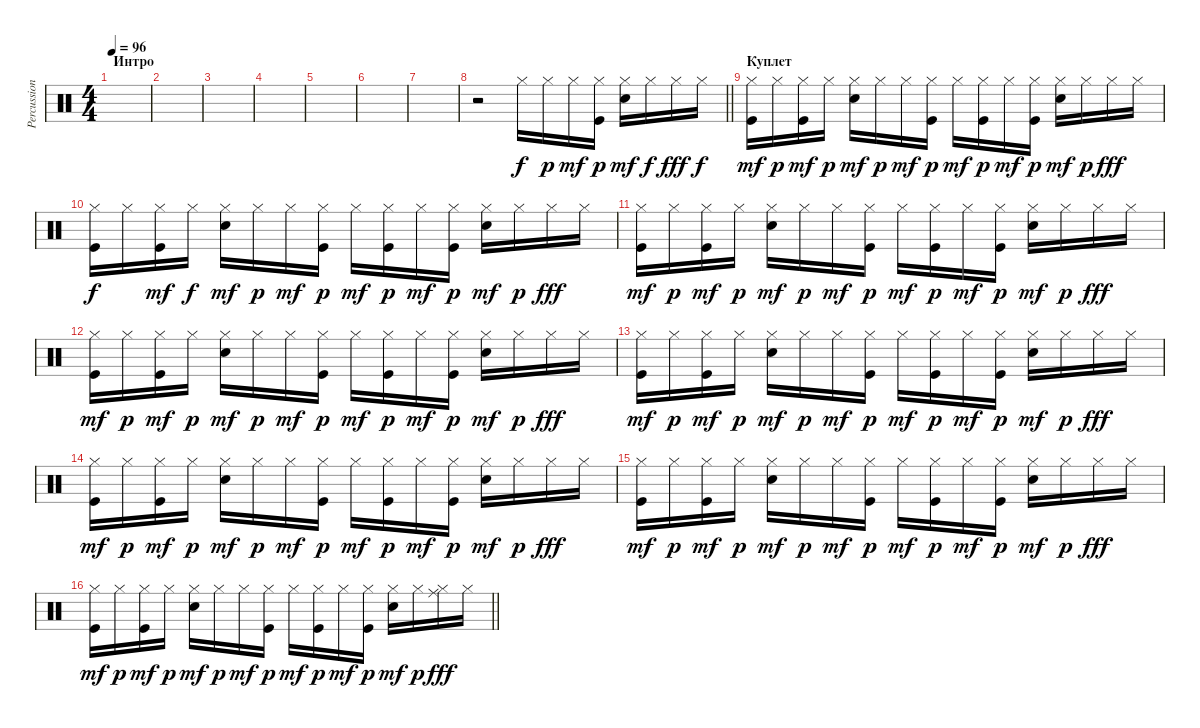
\track ("Percussion" "Percussion") {instrument percussion}
\staff {score}
\articulation defaults
\ts (4 4)
\section ("" "Интро")
\tempo 96
\clef neutral
\ks c
|
|
|
|
|
|
|
\barLineRight lightlight
r.2 "Hi-Hat (closed)".16 "Hi-Hat (closed)".16{dy p} "Hi-Hat (closed)".16{dy mf} ("Hi-Hat (closed)" "Kick (hit)").16{dy p} ("Hi-Hat (closed)" "Snare (hit) 2").16{dy mf} "Hi-Hat (closed)".16{dy f} "Hi-Hat (closed)".16{dy fff} "Hi-Hat (closed)".16{dy f} |
\section ("" "Куплет")
("Hi-Hat (closed)" "Kick (hit)").16{dy mf} "Hi-Hat (closed)".16{dy p} ("Hi-Hat (closed)" "Kick (hit)").16{dy mf} "Hi-Hat (closed)".16{dy p} ("Hi-Hat (closed)" "Snare (hit) 2").16{dy mf} "Hi-Hat (closed)".16{dy p} "Hi-Hat (closed)".16{dy mf} ("Hi-Hat (closed)" "Kick (hit)").16{dy p} "Hi-Hat (closed)".16{dy mf} ("Hi-Hat (closed)" "Kick (hit)").16{dy p} "Hi-Hat (closed)".16{dy mf} ("Hi-Hat (closed)" "Kick (hit)").16{dy p} ("Hi-Hat (closed)" "Snare (hit) 2").16{dy mf} "Hi-Hat (closed)".16{dy p} "Hi-Hat (closed)".16{dy fff} "Hi-Hat (closed)".16 |
("Hi-Hat (closed)" "Kick (hit)").16{dy f} "Hi-Hat (closed)".16 ("Hi-Hat (closed)" "Kick (hit)").16{dy mf} "Hi-Hat (closed)".16{dy f} ("Hi-Hat (closed)" "Snare (hit) 2").16{dy mf} "Hi-Hat (closed)".16{dy p} "Hi-Hat (closed)".16{dy mf} ("Hi-Hat (closed)" "Kick (hit)").16{dy p} "Hi-Hat (closed)".16{dy mf} ("Hi-Hat (closed)" "Kick (hit)").16{dy p} "Hi-Hat (closed)".16{dy mf} ("Hi-Hat (closed)" "Kick (hit)").16{dy p} ("Hi-Hat (closed)" "Snare (hit) 2").16{dy mf} "Hi-Hat (closed)".16{dy p} "Hi-Hat (closed)".16{dy fff} "Hi-Hat (closed)".16 |
("Hi-Hat (closed)" "Kick (hit)").16{dy mf} "Hi-Hat (closed)".16{dy p} ("Hi-Hat (closed)" "Kick (hit)").16{dy mf} "Hi-Hat (closed)".16{dy p} ("Hi-Hat (closed)" "Snare (hit) 2").16{dy mf} "Hi-Hat (closed)".16{dy p} "Hi-Hat (closed)".16{dy mf} ("Hi-Hat (closed)" "Kick (hit)").16{dy p} "Hi-Hat (closed)".16{dy mf} ("Hi-Hat (closed)" "Kick (hit)").16{dy p} "Hi-Hat (closed)".16{dy mf} ("Hi-Hat (closed)" "Kick (hit)").16{dy p} ("Hi-Hat (closed)" "Snare (hit) 2").16{dy mf} "Hi-Hat (closed)".16{dy p} "Hi-Hat (closed)".16{dy fff} "Hi-Hat (closed)".16 |
("Hi-Hat (closed)" "Kick (hit)").16{dy mf} "Hi-Hat (closed)".16{dy p} ("Hi-Hat (closed)" "Kick (hit)").16{dy mf} "Hi-Hat (closed)".16{dy p} ("Hi-Hat (closed)" "Snare (hit) 2").16{dy mf} "Hi-Hat (closed)".16{dy p} "Hi-Hat (closed)".16{dy mf} ("Hi-Hat (closed)" "Kick (hit)").16{dy p} "Hi-Hat (closed)".16{dy mf} ("Hi-Hat (closed)" "Kick (hit)").16{dy p} "Hi-Hat (closed)".16{dy mf} ("Hi-Hat (closed)" "Kick (hit)").16{dy p} ("Hi-Hat (closed)" "Snare (hit) 2").16{dy mf} "Hi-Hat (closed)".16{dy p} "Hi-Hat (closed)".16{dy fff} "Hi-Hat (closed)".16 |
("Hi-Hat (closed)" "Kick (hit)").16{dy mf} "Hi-Hat (closed)".16{dy p} ("Hi-Hat (closed)" "Kick (hit)").16{dy mf} "Hi-Hat (closed)".16{dy p} ("Hi-Hat (closed)" "Snare (hit) 2").16{dy mf} "Hi-Hat (closed)".16{dy p} "Hi-Hat (closed)".16{dy mf} ("Hi-Hat (closed)" "Kick (hit)").16{dy p} "Hi-Hat (closed)".16{dy mf} ("Hi-Hat (closed)" "Kick (hit)").16{dy p} "Hi-Hat (closed)".16{dy mf} ("Hi-Hat (closed)" "Kick (hit)").16{dy p} ("Hi-Hat (closed)" "Snare (hit) 2").16{dy mf} "Hi-Hat (closed)".16{dy p} "Hi-Hat (closed)".16{dy fff} "Hi-Hat (closed)".16 |
("Hi-Hat (closed)" "Kick (hit)").16{dy mf} "Hi-Hat (closed)".16{dy p} ("Hi-Hat (closed)" "Kick (hit)").16{dy mf} "Hi-Hat (closed)".16{dy p} ("Hi-Hat (closed)" "Snare (hit) 2").16{dy mf} "Hi-Hat (closed)".16{dy p} "Hi-Hat (closed)".16{dy mf} ("Hi-Hat (closed)" "Kick (hit)").16{dy p} "Hi-Hat (closed)".16{dy mf} ("Hi-Hat (closed)" "Kick (hit)").16{dy p} "Hi-Hat (closed)".16{dy mf} ("Hi-Hat (closed)" "Kick (hit)").16{dy p} ("Hi-Hat (closed)" "Snare (hit) 2").16{dy mf} "Hi-Hat (closed)".16{dy p} "Hi-Hat (closed)".16{dy fff} "Hi-Hat (closed)".16 |
("Hi-Hat (closed)" "Kick (hit)").16{dy mf} "Hi-Hat (closed)".16{dy p} ("Hi-Hat (closed)" "Kick (hit)").16{dy mf} "Hi-Hat (closed)".16{dy p} ("Hi-Hat (closed)" "Snare (hit) 2").16{dy mf} "Hi-Hat (closed)".16{dy p} "Hi-Hat (closed)".16{dy mf} ("Hi-Hat (closed)" "Kick (hit)").16{dy p} "Hi-Hat (closed)".16{dy mf} ("Hi-Hat (closed)" "Kick (hit)").16{dy p} "Hi-Hat (closed)".16{dy mf} ("Hi-Hat (closed)" "Kick (hit)").16{dy p} ("Hi-Hat (closed)" "Snare (hit) 2").16{dy mf} "Hi-Hat (closed)".16{dy p} "Hi-Hat (closed)".16{dy fff} "Hi-Hat (closed)".16 |
\barLineRight lightlight
("Hi-Hat (closed)" "Kick (hit)").16{dy mf} "Hi-Hat (closed)".16{dy p} ("Hi-Hat (closed)" "Kick (hit)").16{dy mf} "Hi-Hat (closed)".16{dy p} ("Hi-Hat (closed)" "Snare (hit) 2").16{dy mf} "Hi-Hat (closed)".16{dy p} "Hi-Hat (closed)".16{dy mf} ("Hi-Hat (closed)" "Kick (hit)").16{dy p} "Hi-Hat (closed)".16{dy mf} ("Hi-Hat (closed)" "Kick (hit)").16{dy p} "Hi-Hat (closed)".16{dy mf} ("Hi-Hat (closed)" "Kick (hit)").16{dy p} ("Hi-Hat (closed)" "Snare (hit) 2").16{dy mf} "Hi-Hat (closed)".16{dy p} ("Hi-Hat (closed)" "Ride (middle)").16{dy fff} "Hi-Hat (closed)".16
